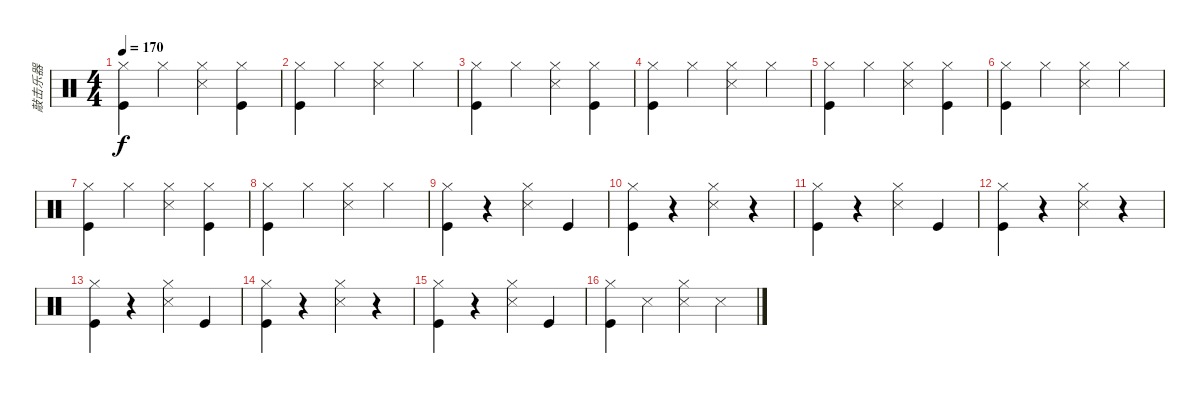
\track ("敲击乐器" "敲击乐器") {instrument percussion}
\staff {score}
\articulation defaults
\ts (4 4)
\tempo 170
\clef neutral
\ks c
("Hi-Hat (closed)" "Kick (hit)").4{dy f} "Hi-Hat (closed)".4 ("Hi-Hat (closed)" "Snare (side stick) 3").4 ("Hi-Hat (closed)" "Kick (hit)").4 |
("Hi-Hat (closed)" "Kick (hit)").4 "Hi-Hat (closed)".4 ("Hi-Hat (closed)" "Snare (side stick) 3").4 "Hi-Hat (closed)".4 |
("Hi-Hat (closed)" "Kick (hit)").4 "Hi-Hat (closed)".4 ("Hi-Hat (closed)" "Snare (side stick) 3").4 ("Hi-Hat (closed)" "Kick (hit)").4 |
("Hi-Hat (closed)" "Kick (hit)").4 "Hi-Hat (closed)".4 ("Hi-Hat (closed)" "Snare (side stick) 3").4 "Hi-Hat (closed)".4 |
("Hi-Hat (closed)" "Kick (hit)").4 "Hi-Hat (closed)".4 ("Hi-Hat (closed)" "Snare (side stick) 3").4 ("Hi-Hat (closed)" "Kick (hit)").4 |
("Hi-Hat (closed)" "Kick (hit)").4 "Hi-Hat (closed)".4 ("Hi-Hat (closed)" "Snare (side stick) 3").4 "Hi-Hat (closed)".4 |
("Hi-Hat (closed)" "Kick (hit)").4 "Hi-Hat (closed)".4 ("Hi-Hat (closed)" "Snare (side stick) 3").4 ("Hi-Hat (closed)" "Kick (hit)").4 |
("Hi-Hat (closed)" "Kick (hit)").4 "Hi-Hat (closed)".4 ("Hi-Hat (closed)" "Snare (side stick) 3").4 "Hi-Hat (closed)".4 |
("Hi-Hat (closed)" "Kick (hit)").4 r.4 ("Hi-Hat (closed)" "Snare (side stick) 3").4 "Kick (hit)".4 |
("Hi-Hat (closed)" "Kick (hit)").4 r.4 ("Hi-Hat (closed)" "Snare (side stick) 3").4 r.4 |
("Hi-Hat (closed)" "Kick (hit)").4 r.4 ("Hi-Hat (closed)" "Snare (side stick) 3").4 "Kick (hit)".4 |
("Hi-Hat (closed)" "Kick (hit)").4 r.4 ("Hi-Hat (closed)" "Snare (side stick) 3").4 r.4 |
("Hi-Hat (closed)" "Kick (hit)").4 r.4 ("Hi-Hat (closed)" "Snare (side stick) 3").4 "Kick (hit)".4 |
("Hi-Hat (closed)" "Kick (hit)").4 r.4 ("Hi-Hat (closed)" "Snare (side stick) 3").4 r.4 |
("Hi-Hat (closed)" "Kick (hit)").4 r.4 ("Hi-Hat (closed)" "Snare (side stick) 3").4 "Kick (hit)".4 |
("Hi-Hat (closed)" "Kick (hit)").4 "Snare (side stick) 3".4 ("Hi-Hat (closed)" "Snare (side stick) 3").4 "Snare (side stick) 3".4
